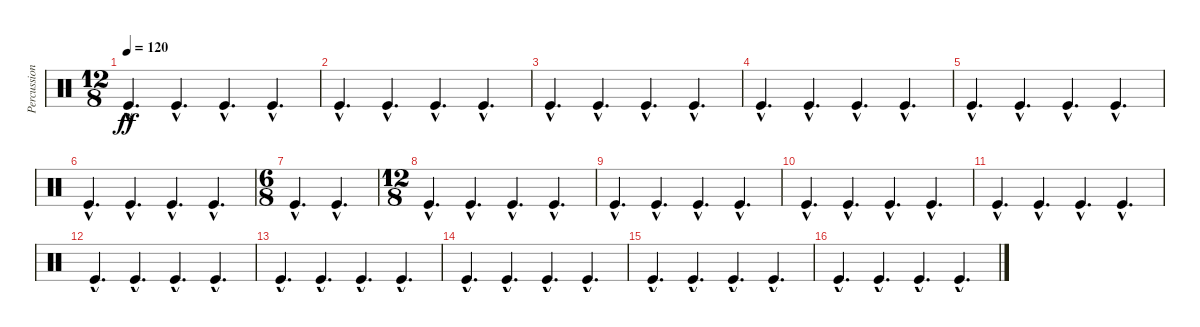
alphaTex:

\track ("Percussions" "Percussion") {instrument percussion}
\staff {score}
\articulation defaults
\ts (12 8)
\tempo 120
\clef neutral
\ks c "Kick (hit)"{hac}.4{d dy ff} "Kick (hit)"{hac}.4{d} "Kick (hit)"{hac}.4{d} "Kick (hit)"{hac}.4{d}
|
"Kick (hit)"{hac}.4{d} "Kick (hit)"{hac}.4{d} "Kick (hit)"{hac}.4{d} "Kick (hit)"{hac}.4{d} |
"Kick (hit)"{hac}.4{d} "Kick (hit)"{hac}.4{d} "Kick (hit)"{hac}.4{d} "Kick (hit)"{hac}.4{d} |
"Kick (hit)"{hac}.4{d} "Kick (hit)"{hac}.4{d} "Kick (hit)"{hac}.4{d} "Kick (hit)"{hac}.4{d} |
"Kick (hit)"{hac}.4{d} "Kick (hit)"{hac}.4{d} "Kick (hit)"{hac}.4{d} "Kick (hit)"{hac}.4{d} |
"Kick (hit)"{hac}.4{d} "Kick (hit)"{hac}.4{d} "Kick (hit)"{hac}.4{d} "Kick (hit)"{hac}.4{d} |
\ts (6 8)
"Kick (hit)"{hac}.4{d} "Kick (hit)"{hac}.4{d} |
\ts (12 8)
"Kick (hit)"{hac}.4{d} "Kick (hit)"{hac}.4{d} "Kick (hit)"{hac}.4{d} "Kick (hit)"{hac}.4{d} |
"Kick (hit)"{hac}.4{d} "Kick (hit)"{hac}.4{d} "Kick (hit)"{hac}.4{d} "Kick (hit)"{hac}.4{d} |
"Kick (hit)"{hac}.4{d} "Kick (hit)"{hac}.4{d} "Kick (hit)"{hac}.4{d} "Kick (hit)"{hac}.4{d} |
"Kick (hit)"{hac}.4{d} "Kick (hit)"{hac}.4{d} "Kick (hit)"{hac}.4{d} "Kick (hit)"{hac}.4{d} |
"Kick (hit)"{hac}.4{d} "Kick (hit)"{hac}.4{d} "Kick (hit)"{hac}.4{d} "Kick (hit)"{hac}.4{d} |
"Kick (hit)"{hac}.4{d} "Kick (hit)"{hac}.4{d} "Kick (hit)"{hac}.4{d} "Kick (hit)"{hac}.4{d} |
"Kick (hit)"{hac}.4{d} "Kick (hit)"{hac}.4{d} "Kick (hit)"{hac}.4{d} "Kick (hit)"{hac}.4{d} |
"Kick (hit)"{hac}.4{d} "Kick (hit)"{hac}.4{d} "Kick (hit)"{hac}.4{d} "Kick (hit)"{hac}.4{d} |
"Kick (hit)"{hac}.4{d} "Kick (hit)"{hac}.4{d} "Kick (hit)"{hac}.4{d} "Kick (hit)"{hac}.4{d}
